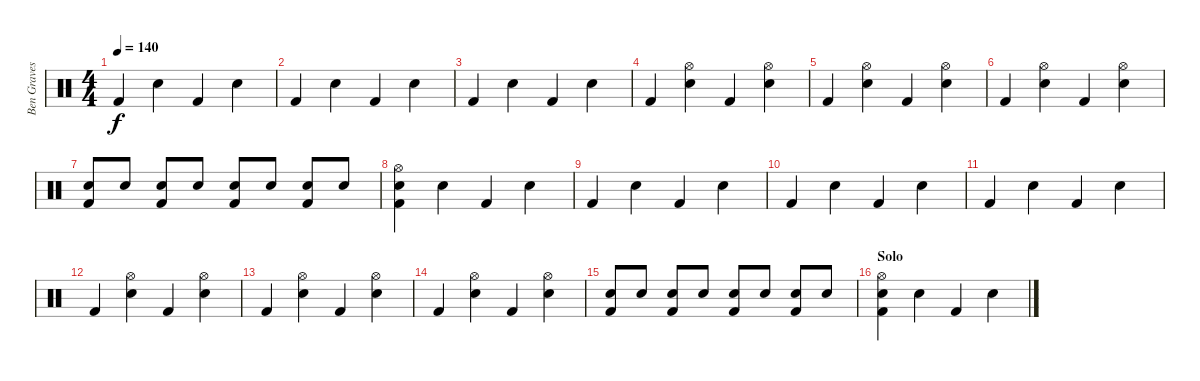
\track ("Ben Graves" "Ben Graves") {instrument percussion}
\staff {score}
\articulation defaults
\ts (4 4)
\tempo 140
\clef neutral
\ks c "Kick (hit) 2".4{dy f} "Electric Snare (hit)".4 "Kick (hit) 2".4 "Electric Snare (hit)".4
|
"Kick (hit) 2".4 "Electric Snare (hit)".4 "Kick (hit) 2".4 "Electric Snare (hit)".4 |
"Kick (hit) 2".4 "Electric Snare (hit)".4 "Kick (hit) 2".4 "Electric Snare (hit)".4 |
"Kick (hit) 2".4 ("Electric Snare (hit)" "Hi-Hat (open)").4 "Kick (hit) 2".4 ("Electric Snare (hit)" "Hi-Hat (open)").4 |
"Kick (hit) 2".4 ("Electric Snare (hit)" "Hi-Hat (open)").4 "Kick (hit) 2".4 ("Electric Snare (hit)" "Hi-Hat (open)").4 |
"Kick (hit) 2".4 ("Electric Snare (hit)" "Hi-Hat (open)").4 "Kick (hit) 2".4 ("Electric Snare (hit)" "Hi-Hat (open)").4 |
("Kick (hit) 2" "Electric Snare (hit)").8 "Electric Snare (hit)".8 ("Kick (hit) 2" "Electric Snare (hit)").8 "Electric Snare (hit)".8 ("Kick (hit) 2" "Electric Snare (hit)").8 "Electric Snare (hit)".8 ("Kick (hit) 2" "Electric Snare (hit)").8 "Electric Snare (hit)".8 |
("Kick (hit) 2" "Electric Snare (hit)" "Hi-Hat (open)").4 "Electric Snare (hit)".4 "Kick (hit) 2".4 "Electric Snare (hit)".4 |
"Kick (hit) 2".4 "Electric Snare (hit)".4 "Kick (hit) 2".4 "Electric Snare (hit)".4 |
"Kick (hit) 2".4 "Electric Snare (hit)".4 "Kick (hit) 2".4 "Electric Snare (hit)".4 |
"Kick (hit) 2".4 "Electric Snare (hit)".4 "Kick (hit) 2".4 "Electric Snare (hit)".4 |
"Kick (hit) 2".4 ("Electric Snare (hit)" "Hi-Hat (open)").4 "Kick (hit) 2".4 ("Electric Snare (hit)" "Hi-Hat (open)").4 |
"Kick (hit) 2".4 ("Electric Snare (hit)" "Hi-Hat (open)").4 "Kick (hit) 2".4 ("Electric Snare (hit)" "Hi-Hat (open)").4 |
"Kick (hit) 2".4 ("Electric Snare (hit)" "Hi-Hat (open)").4 "Kick (hit) 2".4 ("Electric Snare (hit)" "Hi-Hat (open)").4 |
("Kick (hit) 2" "Electric Snare (hit)").8 "Electric Snare (hit)".8 ("Kick (hit) 2" "Electric Snare (hit)").8 "Electric Snare (hit)".8 ("Kick (hit) 2" "Electric Snare (hit)").8 "Electric Snare (hit)".8 ("Kick (hit) 2" "Electric Snare (hit)").8 "Electric Snare (hit)".8 |
\section ("" "Solo")
("Kick (hit) 2" "Electric Snare (hit)" "Hi-Hat (open)").4 "Electric Snare (hit)".4 "Kick (hit) 2".4 "Electric Snare (hit)".4
